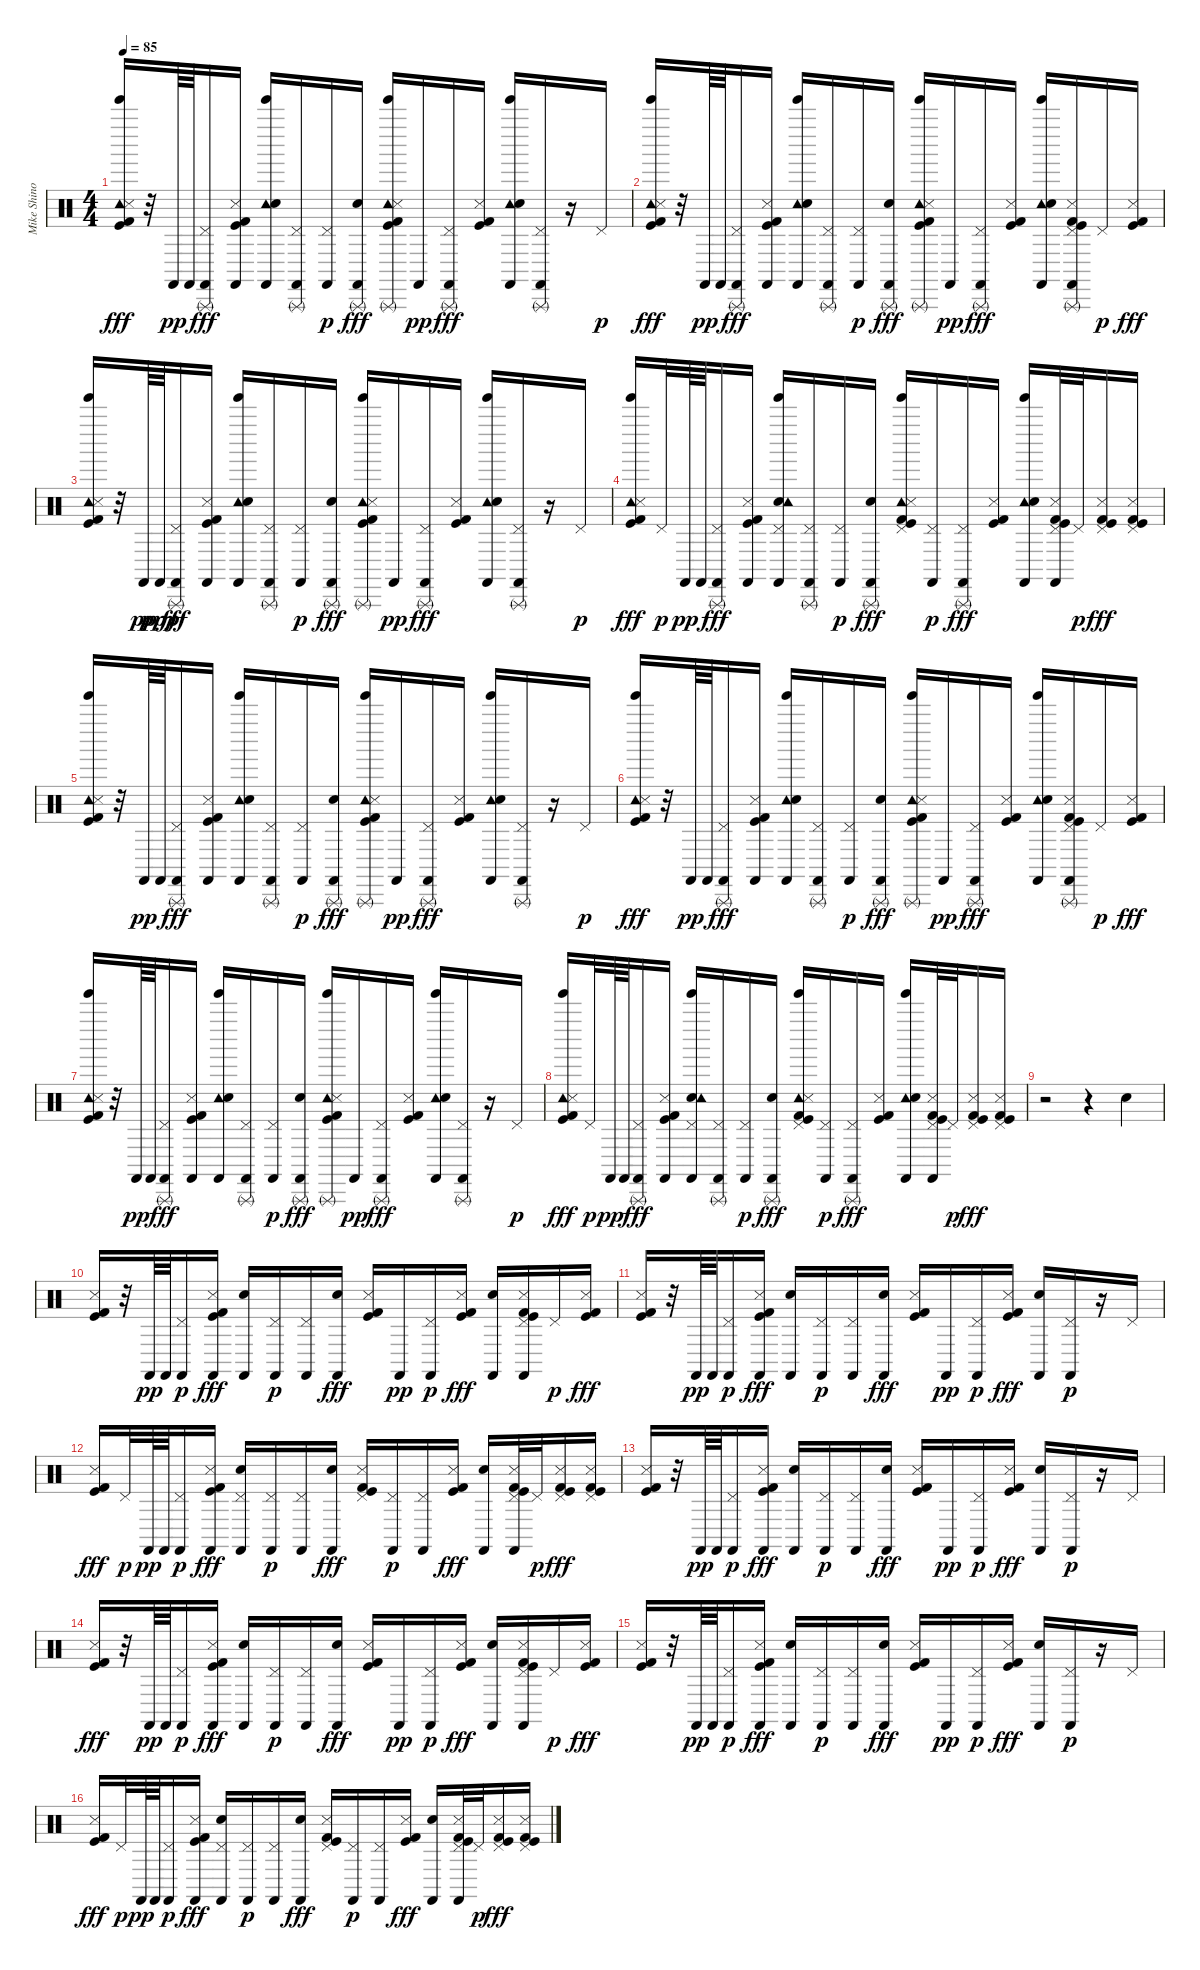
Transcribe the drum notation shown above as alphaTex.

\track ("Mike Shinoda - Percussion" "Mike Shino") {instrument percussion}
\staff {score}
\articulation defaults
\ts (4 4)
\tempo 85
\clef neutral
\ks c
("Tambourine (hit)" "Tinkle Bell (hit)" "Snare (side stick) 3" "Kick (hit)" "Kick (hit) 2").16{dy fff} r.32 "Castanets (hit)".64{dy pp} "Castanets (hit)".64 ("Castanets (hit)" "Pedal Hi-Hat (hit)" "Triangle (rnute)").16{dy fff} ("Castanets (hit)" "Snare (side stick) 3" "Kick (hit)" "Kick (hit) 2").16 ("Castanets (hit)" "Tambourine (hit)" "Hand Clap (hit)" "Tinkle Bell (hit)").16 ("Castanets (hit)" "Pedal Hi-Hat (hit)" "Triangle (rnute)").16 ("Castanets (hit)" "Pedal Hi-Hat (hit)").16{dy p} ("Castanets (hit)" "Triangle (rnute)" "Hand Clap (hit)").16{dy fff} ("Triangle (rnute)" "Tambourine (hit)" "Tinkle Bell (hit)" "Snare (side stick) 3" "Kick (hit)" "Kick (hit) 2").16 "Castanets (hit)".16{dy pp} ("Castanets (hit)" "Pedal Hi-Hat (hit)" "Triangle (rnute)").16{dy fff} ("Snare (side stick) 3" "Kick (hit)" "Kick (hit) 2").16 ("Castanets (hit)" "Tambourine (hit)" "Hand Clap (hit)" "Tinkle Bell (hit)").16 ("Castanets (hit)" "Pedal Hi-Hat (hit)" "Triangle (rnute)").16 r.16 "Pedal Hi-Hat (hit)".16{dy p} |
("Tambourine (hit)" "Tinkle Bell (hit)" "Snare (side stick) 3" "Kick (hit)" "Kick (hit) 2").16{dy fff} r.32 "Castanets (hit)".64{dy pp} "Castanets (hit)".64 ("Castanets (hit)" "Pedal Hi-Hat (hit)" "Triangle (rnute)").16{dy fff} ("Castanets (hit)" "Snare (side stick) 3" "Kick (hit)" "Kick (hit) 2").16 ("Castanets (hit)" "Tambourine (hit)" "Hand Clap (hit)" "Tinkle Bell (hit)").16 ("Castanets (hit)" "Pedal Hi-Hat (hit)" "Triangle (rnute)").16 ("Castanets (hit)" "Pedal Hi-Hat (hit)").16{dy p} ("Castanets (hit)" "Triangle (rnute)" "Hand Clap (hit)").16{dy fff} ("Triangle (rnute)" "Tambourine (hit)" "Tinkle Bell (hit)" "Snare (side stick) 3" "Kick (hit)" "Kick (hit) 2").16 "Castanets (hit)".16{dy pp} ("Castanets (hit)" "Pedal Hi-Hat (hit)" "Triangle (rnute)").16{dy fff} ("Snare (side stick) 3" "Kick (hit)" "Kick (hit) 2").16 ("Castanets (hit)" "Tambourine (hit)" "Hand Clap (hit)" "Tinkle Bell (hit)").16 ("Castanets (hit)" "Pedal Hi-Hat (hit)" "Triangle (rnute)" "Snare (side stick) 3" "Kick (hit)" "Kick (hit) 2").16 "Pedal Hi-Hat (hit)".16{dy p} ("Snare (side stick) 3" "Kick (hit)" "Kick (hit) 2").16{dy fff} |
("Tambourine (hit)" "Tinkle Bell (hit)" "Snare (side stick) 3" "Kick (hit)" "Kick (hit) 2").16 r.32 "Castanets (hit)".64{dy pp} "Castanets (hit)".64{dy ppp} ("Castanets (hit)" "Pedal Hi-Hat (hit)" "Triangle (rnute)").16{dy fff} ("Castanets (hit)" "Snare (side stick) 3" "Kick (hit)" "Kick (hit) 2").16 ("Castanets (hit)" "Tambourine (hit)" "Hand Clap (hit)" "Tinkle Bell (hit)").16 ("Castanets (hit)" "Pedal Hi-Hat (hit)" "Triangle (rnute)").16 ("Castanets (hit)" "Pedal Hi-Hat (hit)").16{dy p} ("Castanets (hit)" "Triangle (rnute)" "Hand Clap (hit)").16{dy fff} ("Triangle (rnute)" "Tambourine (hit)" "Tinkle Bell (hit)" "Snare (side stick) 3" "Kick (hit)" "Kick (hit) 2").16 "Castanets (hit)".16{dy pp} ("Castanets (hit)" "Pedal Hi-Hat (hit)" "Triangle (rnute)").16{dy fff} ("Snare (side stick) 3" "Kick (hit)" "Kick (hit) 2").16 ("Castanets (hit)" "Tambourine (hit)" "Hand Clap (hit)" "Tinkle Bell (hit)").16 ("Castanets (hit)" "Pedal Hi-Hat (hit)" "Triangle (rnute)").16 r.16 "Pedal Hi-Hat (hit)".16{dy p} |
("Tambourine (hit)" "Tinkle Bell (hit)" "Snare (side stick) 3" "Kick (hit)" "Kick (hit) 2").16{dy fff} "Pedal Hi-Hat (hit)".32{dy p} "Castanets (hit)".64{dy pp} "Castanets (hit)".64 ("Castanets (hit)" "Pedal Hi-Hat (hit)" "Triangle (rnute)").16{dy fff} ("Castanets (hit)" "Snare (side stick) 3" "Kick (hit)" "Kick (hit) 2").16 ("Castanets (hit)" "Pedal Hi-Hat (hit)" "Hand Clap (hit)" "Tambourine (hit)" "Tinkle Bell (hit)").16 ("Castanets (hit)" "Pedal Hi-Hat (hit)" "Triangle (rnute)").16 ("Castanets (hit)" "Pedal Hi-Hat (hit)").16{dy p} ("Castanets (hit)" "Triangle (rnute)" "Hand Clap (hit)").16{dy fff} ("Tambourine (hit)" "Pedal Hi-Hat (hit)" "Tinkle Bell (hit)" "Snare (side stick) 3" "Kick (hit)" "Kick (hit) 2").16 ("Castanets (hit)" "Pedal Hi-Hat (hit)").16{dy p} ("Castanets (hit)" "Pedal Hi-Hat (hit)" "Triangle (rnute)").16{dy fff} ("Snare (side stick) 3" "Kick (hit)" "Kick (hit) 2").16 ("Castanets (hit)" "Tambourine (hit)" "Hand Clap (hit)" "Tinkle Bell (hit)").16 ("Castanets (hit)" "Pedal Hi-Hat (hit)" "Snare (side stick) 3" "Kick (hit)" "Kick (hit) 2").32 "Pedal Hi-Hat (hit)".32{dy p} ("Pedal Hi-Hat (hit)" "Snare (side stick) 3" "Kick (hit)" "Kick (hit) 2").16{dy fff} ("Pedal Hi-Hat (hit)" "Snare (side stick) 3" "Kick (hit)" "Kick (hit) 2").16 |
("Tambourine (hit)" "Tinkle Bell (hit)" "Snare (side stick) 3" "Kick (hit)" "Kick (hit) 2").16 r.32 "Castanets (hit)".64{dy pp} "Castanets (hit)".64 ("Castanets (hit)" "Pedal Hi-Hat (hit)" "Triangle (rnute)").16{dy fff} ("Castanets (hit)" "Snare (side stick) 3" "Kick (hit)" "Kick (hit) 2").16 ("Castanets (hit)" "Tambourine (hit)" "Hand Clap (hit)" "Tinkle Bell (hit)").16 ("Castanets (hit)" "Pedal Hi-Hat (hit)" "Triangle (rnute)").16 ("Castanets (hit)" "Pedal Hi-Hat (hit)").16{dy p} ("Castanets (hit)" "Triangle (rnute)" "Hand Clap (hit)").16{dy fff} ("Triangle (rnute)" "Tambourine (hit)" "Tinkle Bell (hit)" "Snare (side stick) 3" "Kick (hit)" "Kick (hit) 2").16 "Castanets (hit)".16{dy pp} ("Castanets (hit)" "Pedal Hi-Hat (hit)" "Triangle (rnute)").16{dy fff} ("Snare (side stick) 3" "Kick (hit)" "Kick (hit) 2").16 ("Castanets (hit)" "Tambourine (hit)" "Hand Clap (hit)" "Tinkle Bell (hit)").16 ("Castanets (hit)" "Pedal Hi-Hat (hit)" "Triangle (rnute)").16 r.16 "Pedal Hi-Hat (hit)".16{dy p} |
("Tambourine (hit)" "Tinkle Bell (hit)" "Snare (side stick) 3" "Kick (hit)" "Kick (hit) 2").16{dy fff} r.32 "Castanets (hit)".64{dy pp} "Castanets (hit)".64 ("Castanets (hit)" "Pedal Hi-Hat (hit)" "Triangle (rnute)").16{dy fff} ("Castanets (hit)" "Snare (side stick) 3" "Kick (hit)" "Kick (hit) 2").16 ("Castanets (hit)" "Tambourine (hit)" "Hand Clap (hit)" "Tinkle Bell (hit)").16 ("Castanets (hit)" "Pedal Hi-Hat (hit)" "Triangle (rnute)").16 ("Castanets (hit)" "Pedal Hi-Hat (hit)").16{dy p} ("Castanets (hit)" "Triangle (rnute)" "Hand Clap (hit)").16{dy fff} ("Triangle (rnute)" "Tambourine (hit)" "Tinkle Bell (hit)" "Snare (side stick) 3" "Kick (hit)" "Kick (hit) 2").16 "Castanets (hit)".16{dy pp} ("Castanets (hit)" "Pedal Hi-Hat (hit)" "Triangle (rnute)").16{dy fff} ("Snare (side stick) 3" "Kick (hit)" "Kick (hit) 2").16 ("Castanets (hit)" "Tambourine (hit)" "Hand Clap (hit)" "Tinkle Bell (hit)").16 ("Castanets (hit)" "Pedal Hi-Hat (hit)" "Triangle (rnute)" "Snare (side stick) 3" "Kick (hit)" "Kick (hit) 2").16 "Pedal Hi-Hat (hit)".16{dy p} ("Snare (side stick) 3" "Kick (hit)" "Kick (hit) 2").16{dy fff} |
("Tambourine (hit)" "Tinkle Bell (hit)" "Snare (side stick) 3" "Kick (hit)" "Kick (hit) 2").16 r.32 "Castanets (hit)".64{dy pp} "Castanets (hit)".64 ("Castanets (hit)" "Pedal Hi-Hat (hit)" "Triangle (rnute)").16{dy fff} ("Castanets (hit)" "Snare (side stick) 3" "Kick (hit)" "Kick (hit) 2").16 ("Castanets (hit)" "Tambourine (hit)" "Hand Clap (hit)" "Tinkle Bell (hit)").16 ("Castanets (hit)" "Pedal Hi-Hat (hit)" "Triangle (rnute)").16 ("Castanets (hit)" "Pedal Hi-Hat (hit)").16{dy p} ("Castanets (hit)" "Triangle (rnute)" "Hand Clap (hit)").16{dy fff} ("Triangle (rnute)" "Tambourine (hit)" "Tinkle Bell (hit)" "Snare (side stick) 3" "Kick (hit)" "Kick (hit) 2").16 "Castanets (hit)".16{dy pp} ("Castanets (hit)" "Pedal Hi-Hat (hit)" "Triangle (rnute)").16{dy fff} ("Snare (side stick) 3" "Kick (hit)" "Kick (hit) 2").16 ("Castanets (hit)" "Tambourine (hit)" "Hand Clap (hit)" "Tinkle Bell (hit)").16 ("Castanets (hit)" "Pedal Hi-Hat (hit)" "Triangle (rnute)").16 r.16 "Pedal Hi-Hat (hit)".16{dy p} |
("Tambourine (hit)" "Tinkle Bell (hit)" "Snare (side stick) 3" "Kick (hit)" "Kick (hit) 2").16{dy fff} "Pedal Hi-Hat (hit)".32{dy p} "Castanets (hit)".64{dy pp} "Castanets (hit)".64 ("Castanets (hit)" "Pedal Hi-Hat (hit)" "Triangle (rnute)").16{dy fff} ("Castanets (hit)" "Snare (side stick) 3" "Kick (hit)" "Kick (hit) 2").16 ("Castanets (hit)" "Pedal Hi-Hat (hit)" "Hand Clap (hit)" "Tambourine (hit)" "Tinkle Bell (hit)").16 ("Castanets (hit)" "Pedal Hi-Hat (hit)" "Triangle (rnute)").16 ("Castanets (hit)" "Pedal Hi-Hat (hit)").16{dy p} ("Castanets (hit)" "Triangle (rnute)" "Hand Clap (hit)").16{dy fff} ("Tambourine (hit)" "Pedal Hi-Hat (hit)" "Tinkle Bell (hit)" "Snare (side stick) 3" "Kick (hit)" "Kick (hit) 2").16 ("Castanets (hit)" "Pedal Hi-Hat (hit)").16{dy p} ("Castanets (hit)" "Pedal Hi-Hat (hit)" "Triangle (rnute)").16{dy fff} ("Snare (side stick) 3" "Kick (hit)" "Kick (hit) 2").16 ("Castanets (hit)" "Tambourine (hit)" "Hand Clap (hit)" "Tinkle Bell (hit)").16 ("Castanets (hit)" "Pedal Hi-Hat (hit)" "Snare (side stick) 3" "Kick (hit)" "Kick (hit) 2").32 "Pedal Hi-Hat (hit)".32{dy p} ("Pedal Hi-Hat (hit)" "Snare (side stick) 3" "Kick (hit)" "Kick (hit) 2").16{dy fff} ("Pedal Hi-Hat (hit)" "Snare (side stick) 3" "Kick (hit)" "Kick (hit) 2").16 |
r.2 r.4 "Hand Clap (hit)".4 |
("Snare (side stick) 3" "Kick (hit)" "Kick (hit) 2").16 r.32 "Castanets (hit)".64{dy pp} "Castanets (hit)".64 ("Castanets (hit)" "Pedal Hi-Hat (hit)").16{dy p} ("Castanets (hit)" "Snare (side stick) 3" "Kick (hit)" "Kick (hit) 2").16{dy fff} ("Castanets (hit)" "Hand Clap (hit)").16 ("Castanets (hit)" "Pedal Hi-Hat (hit)").16{dy p} ("Castanets (hit)" "Pedal Hi-Hat (hit)").16 ("Castanets (hit)" "Hand Clap (hit)").16{dy fff} ("Snare (side stick) 3" "Kick (hit)" "Kick (hit) 2").16 "Castanets (hit)".16{dy pp} ("Castanets (hit)" "Pedal Hi-Hat (hit)").16{dy p} ("Snare (side stick) 3" "Kick (hit)" "Kick (hit) 2").16{dy fff} ("Castanets (hit)" "Hand Clap (hit)").16 ("Castanets (hit)" "Pedal Hi-Hat (hit)" "Snare (side stick) 3" "Kick (hit)" "Kick (hit) 2").16 "Pedal Hi-Hat (hit)".16{dy p} ("Snare (side stick) 3" "Kick (hit)" "Kick (hit) 2").16{dy fff} |
("Snare (side stick) 3" "Kick (hit)" "Kick (hit) 2").16 r.32 "Castanets (hit)".64{dy pp} "Castanets (hit)".64 ("Castanets (hit)" "Pedal Hi-Hat (hit)").16{dy p} ("Castanets (hit)" "Snare (side stick) 3" "Kick (hit)" "Kick (hit) 2").16{dy fff} ("Castanets (hit)" "Hand Clap (hit)").16 ("Castanets (hit)" "Pedal Hi-Hat (hit)").16{dy p} ("Castanets (hit)" "Pedal Hi-Hat (hit)").16 ("Castanets (hit)" "Hand Clap (hit)").16{dy fff} ("Snare (side stick) 3" "Kick (hit)" "Kick (hit) 2").16 "Castanets (hit)".16{dy pp} ("Castanets (hit)" "Pedal Hi-Hat (hit)").16{dy p} ("Snare (side stick) 3" "Kick (hit)" "Kick (hit) 2").16{dy fff} ("Castanets (hit)" "Hand Clap (hit)").16 ("Castanets (hit)" "Pedal Hi-Hat (hit)").16{dy p} r.16 "Pedal Hi-Hat (hit)".16 |
("Snare (side stick) 3" "Kick (hit)" "Kick (hit) 2").16{dy fff} "Pedal Hi-Hat (hit)".32{dy p} "Castanets (hit)".64{dy pp} "Castanets (hit)".64 ("Castanets (hit)" "Pedal Hi-Hat (hit)").16{dy p} ("Castanets (hit)" "Snare (side stick) 3" "Kick (hit)" "Kick (hit) 2").16{dy fff} ("Castanets (hit)" "Pedal Hi-Hat (hit)" "Hand Clap (hit)").16 ("Castanets (hit)" "Pedal Hi-Hat (hit)").16{dy p} ("Castanets (hit)" "Pedal Hi-Hat (hit)").16 ("Castanets (hit)" "Hand Clap (hit)").16{dy fff} ("Pedal Hi-Hat (hit)" "Snare (side stick) 3" "Kick (hit)" "Kick (hit) 2").16 ("Castanets (hit)" "Pedal Hi-Hat (hit)").16{dy p} ("Castanets (hit)" "Pedal Hi-Hat (hit)").16 ("Snare (side stick) 3" "Kick (hit)" "Kick (hit) 2").16{dy fff} ("Castanets (hit)" "Hand Clap (hit)").16 ("Castanets (hit)" "Pedal Hi-Hat (hit)" "Snare (side stick) 3" "Kick (hit)" "Kick (hit) 2").32 "Pedal Hi-Hat (hit)".32{dy p} ("Pedal Hi-Hat (hit)" "Snare (side stick) 3" "Kick (hit)" "Kick (hit) 2").16{dy fff} ("Pedal Hi-Hat (hit)" "Snare (side stick) 3" "Kick (hit)" "Kick (hit) 2").16 |
("Snare (side stick) 3" "Kick (hit)" "Kick (hit) 2").16 r.32 "Castanets (hit)".64{dy pp} "Castanets (hit)".64 ("Castanets (hit)" "Pedal Hi-Hat (hit)").16{dy p} ("Castanets (hit)" "Snare (side stick) 3" "Kick (hit)" "Kick (hit) 2").16{dy fff} ("Castanets (hit)" "Hand Clap (hit)").16 ("Castanets (hit)" "Pedal Hi-Hat (hit)").16{dy p} ("Castanets (hit)" "Pedal Hi-Hat (hit)").16 ("Castanets (hit)" "Hand Clap (hit)").16{dy fff} ("Snare (side stick) 3" "Kick (hit)" "Kick (hit) 2").16 "Castanets (hit)".16{dy pp} ("Castanets (hit)" "Pedal Hi-Hat (hit)").16{dy p} ("Snare (side stick) 3" "Kick (hit)" "Kick (hit) 2").16{dy fff} ("Castanets (hit)" "Hand Clap (hit)").16 ("Castanets (hit)" "Pedal Hi-Hat (hit)").16{dy p} r.16 "Pedal Hi-Hat (hit)".16 |
("Snare (side stick) 3" "Kick (hit)" "Kick (hit) 2").16{dy fff} r.32 "Castanets (hit)".64{dy pp} "Castanets (hit)".64 ("Castanets (hit)" "Pedal Hi-Hat (hit)").16{dy p} ("Castanets (hit)" "Snare (side stick) 3" "Kick (hit)" "Kick (hit) 2").16{dy fff} ("Castanets (hit)" "Hand Clap (hit)").16 ("Castanets (hit)" "Pedal Hi-Hat (hit)").16{dy p} ("Castanets (hit)" "Pedal Hi-Hat (hit)").16 ("Castanets (hit)" "Hand Clap (hit)").16{dy fff} ("Snare (side stick) 3" "Kick (hit)" "Kick (hit) 2").16 "Castanets (hit)".16{dy pp} ("Castanets (hit)" "Pedal Hi-Hat (hit)").16{dy p} ("Snare (side stick) 3" "Kick (hit)" "Kick (hit) 2").16{dy fff} ("Castanets (hit)" "Hand Clap (hit)").16 ("Castanets (hit)" "Pedal Hi-Hat (hit)" "Snare (side stick) 3" "Kick (hit)" "Kick (hit) 2").16 "Pedal Hi-Hat (hit)".16{dy p} ("Snare (side stick) 3" "Kick (hit)" "Kick (hit) 2").16{dy fff} |
("Snare (side stick) 3" "Kick (hit)" "Kick (hit) 2").16 r.32 "Castanets (hit)".64{dy pp} "Castanets (hit)".64 ("Castanets (hit)" "Pedal Hi-Hat (hit)").16{dy p} ("Castanets (hit)" "Snare (side stick) 3" "Kick (hit)" "Kick (hit) 2").16{dy fff} ("Castanets (hit)" "Hand Clap (hit)").16 ("Castanets (hit)" "Pedal Hi-Hat (hit)").16{dy p} ("Castanets (hit)" "Pedal Hi-Hat (hit)").16 ("Castanets (hit)" "Hand Clap (hit)").16{dy fff} ("Snare (side stick) 3" "Kick (hit)" "Kick (hit) 2").16 "Castanets (hit)".16{dy pp} ("Castanets (hit)" "Pedal Hi-Hat (hit)").16{dy p} ("Snare (side stick) 3" "Kick (hit)" "Kick (hit) 2").16{dy fff} ("Castanets (hit)" "Hand Clap (hit)").16 ("Castanets (hit)" "Pedal Hi-Hat (hit)").16{dy p} r.16 "Pedal Hi-Hat (hit)".16 |
("Snare (side stick) 3" "Kick (hit)" "Kick (hit) 2").16{dy fff} "Pedal Hi-Hat (hit)".32{dy p} "Castanets (hit)".64{dy pp} "Castanets (hit)".64 ("Castanets (hit)" "Pedal Hi-Hat (hit)").16{dy p} ("Castanets (hit)" "Snare (side stick) 3" "Kick (hit)" "Kick (hit) 2").16{dy fff} ("Castanets (hit)" "Pedal Hi-Hat (hit)" "Hand Clap (hit)").16 ("Castanets (hit)" "Pedal Hi-Hat (hit)").16{dy p} ("Castanets (hit)" "Pedal Hi-Hat (hit)").16 ("Castanets (hit)" "Hand Clap (hit)").16{dy fff} ("Pedal Hi-Hat (hit)" "Snare (side stick) 3" "Kick (hit)" "Kick (hit) 2").16 ("Castanets (hit)" "Pedal Hi-Hat (hit)").16{dy p} ("Castanets (hit)" "Pedal Hi-Hat (hit)").16 ("Snare (side stick) 3" "Kick (hit)" "Kick (hit) 2").16{dy fff} ("Castanets (hit)" "Hand Clap (hit)").16 ("Castanets (hit)" "Pedal Hi-Hat (hit)" "Snare (side stick) 3" "Kick (hit)" "Kick (hit) 2").32 "Pedal Hi-Hat (hit)".32{dy p} ("Pedal Hi-Hat (hit)" "Snare (side stick) 3" "Kick (hit)" "Kick (hit) 2").16{dy fff} ("Pedal Hi-Hat (hit)" "Snare (side stick) 3" "Kick (hit)" "Kick (hit) 2").16
